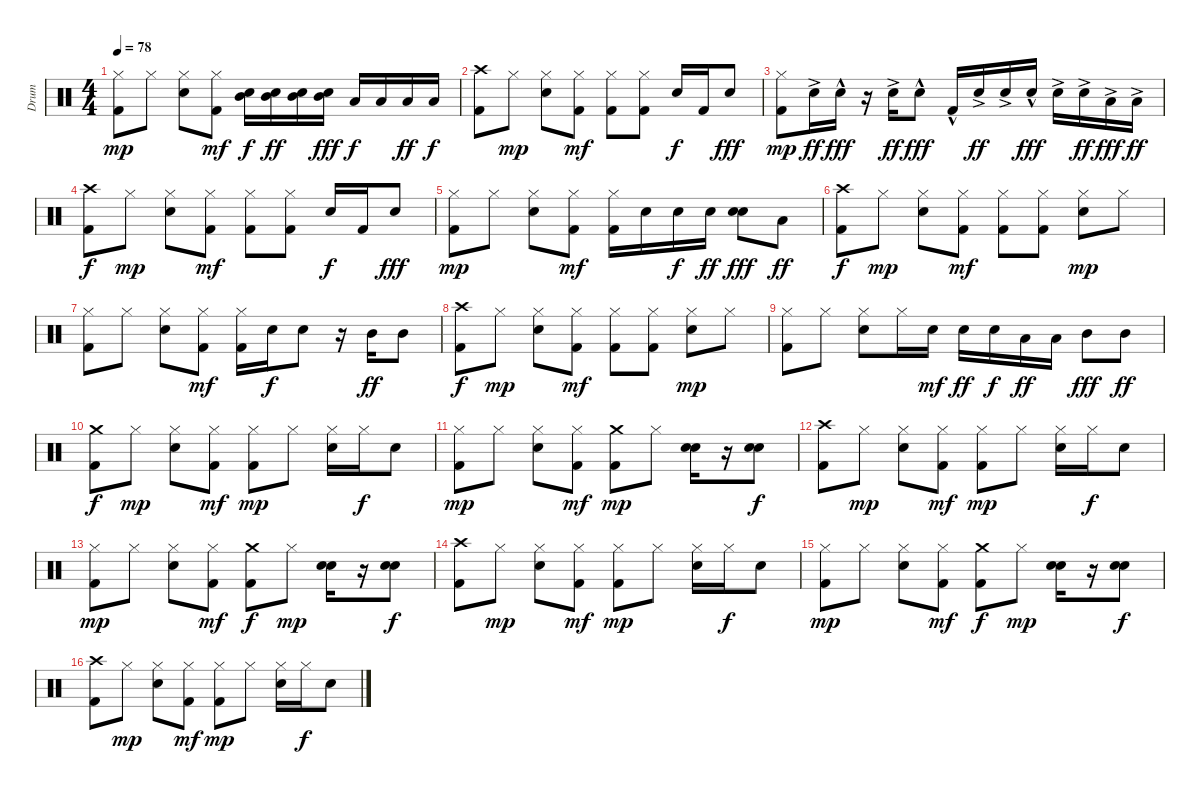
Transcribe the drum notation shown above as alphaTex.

\track ("Drum" "Drum") {instrument percussion}
\staff {score}
\articulation defaults
\ts (4 4)
\tempo 78
\clef neutral
\ks c
("Hi-Hat (closed)" "Kick (hit) 2").8{dy mp} "Hi-Hat (closed)".8 ("Hi-Hat (closed)" "Electric Snare (hit)").8 ("Hi-Hat (closed)" "Kick (hit) 2").8{dy mf} ("Mid Tom (hit)" "Snare (hit) 2").16{dy f} ("Mid Tom (hit)" "Snare (hit) 2").16{dy ff} ("Mid Tom (hit)" "Snare (hit) 2").16 ("Mid Tom (hit)" "Snare (hit) 2").16{dy fff} "Low Tom (hit)".16{dy f} "Low Tom (hit)".16 "Low Tom (hit)".16{dy ff} "Low Tom (hit)".16{dy f} |
("Crash high (hit)" "Kick (hit) 2").8 "Hi-Hat (closed)".8{dy mp} ("Hi-Hat (closed)" "Electric Snare (hit)").8 ("Hi-Hat (closed)" "Kick (hit) 2").8{dy mf} ("Hi-Hat (closed)" "Kick (hit) 2").8 ("Hi-Hat (closed)" "Kick (hit) 2").8 "Electric Snare (hit)".16{dy f} "Kick (hit) 2".16 "Electric Snare (hit)".8{dy fff} |
("Hi-Hat (closed)" "Kick (hit) 2").8{dy mp} "Electric Snare (hit)"{ac}.16{dy ff} "Electric Snare (hit)"{hac}.16{dy fff} r.16 "Snare (hit) 2"{ac}.16{dy ff} "Snare (hit) 2"{hac}.8{dy fff} "Kick (hit) 2"{hac}.16 "Electric Snare (hit)"{ac}.16{dy ff} "Electric Snare (hit)"{ac}.16 "Electric Snare (hit)"{hac}.16{dy fff} "Snare (hit) 2"{ac}.16 "Snare (hit) 2"{ac}.16{dy ff} "Low Tom (hit)"{ac}.16{dy fff} "Low Tom (hit)"{ac}.16{dy ff} |
("Crash high (hit)" "Kick (hit) 2").8{dy f} "Hi-Hat (closed)".8{dy mp} ("Hi-Hat (closed)" "Electric Snare (hit)").8 ("Hi-Hat (closed)" "Kick (hit) 2").8{dy mf} ("Hi-Hat (closed)" "Kick (hit) 2").8 ("Hi-Hat (closed)" "Kick (hit) 2").8 "Electric Snare (hit)".16{dy f} "Kick (hit) 2".16 "Electric Snare (hit)".8{dy fff} |
("Hi-Hat (closed)" "Kick (hit) 2").8{dy mp} "Hi-Hat (closed)".8 ("Hi-Hat (closed)" "Electric Snare (hit)").8 ("Hi-Hat (closed)" "Kick (hit) 2").8{dy mf} ("Hi-Hat (closed)" "Kick (hit) 2").16 "Electric Snare (hit)".16 "Electric Snare (hit)".16{dy f} "Electric Snare (hit)".16{dy ff} ("Snare (hit) 2" "Electric Snare (hit)").8{dy fff} "Low Tom (hit)".8{dy ff} |
("Crash high (hit)" "Kick (hit) 2").8{dy f} "Hi-Hat (closed)".8{dy mp} ("Hi-Hat (closed)" "Electric Snare (hit)").8 ("Hi-Hat (closed)" "Kick (hit) 2").8{dy mf} ("Hi-Hat (closed)" "Kick (hit) 2").8 ("Hi-Hat (closed)" "Kick (hit) 2").8 ("Hi-Hat (closed)" "Electric Snare (hit)").8{dy mp} "Hi-Hat (closed)".8 |
("Hi-Hat (closed)" "Kick (hit) 2").8 "Hi-Hat (closed)".8 ("Hi-Hat (closed)" "Electric Snare (hit)").8 ("Hi-Hat (closed)" "Kick (hit) 2").8{dy mf} ("Hi-Hat (closed)" "Kick (hit) 2").16 "Electric Snare (hit)".16{dy f} "Electric Snare (hit)".8 r.16 "Mid Tom (hit)".16{dy ff} "Mid Tom (hit)".8 |
("Crash high (hit)" "Kick (hit) 2").8{dy f} "Hi-Hat (closed)".8{dy mp} ("Hi-Hat (closed)" "Electric Snare (hit)").8 ("Hi-Hat (closed)" "Kick (hit) 2").8{dy mf} ("Hi-Hat (closed)" "Kick (hit) 2").8 ("Hi-Hat (closed)" "Kick (hit) 2").8 ("Hi-Hat (closed)" "Electric Snare (hit)").8{dy mp} "Hi-Hat (closed)".8 |
("Hi-Hat (closed)" "Kick (hit) 2").8 "Hi-Hat (closed)".8 ("Hi-Hat (closed)" "Electric Snare (hit)").8 "Hi-Hat (closed)".16 "Electric Snare (hit)".16{dy mf} "Electric Snare (hit)".16{dy ff} "Electric Snare (hit)".16{dy f} "Low Tom (hit)".16{dy ff} "Low Tom (hit)".16 "Mid Tom (hit)".8{dy fff} "Mid Tom (hit)".8{dy ff} |
("Crash medium (hit)" "Kick (hit) 2").8{dy f} "Hi-Hat (closed)".8{dy mp} ("Hi-Hat (closed)" "Electric Snare (hit)").8 ("Hi-Hat (closed)" "Kick (hit) 2").8{dy mf} ("Hi-Hat (closed)" "Kick (hit) 2").8{dy mp} "Hi-Hat (closed)".8 ("Hi-Hat (closed)" "Electric Snare (hit)").16 "Hi-Hat (closed)".16{dy f} "Electric Snare (hit)".8 |
("Hi-Hat (closed)" "Kick (hit) 2").8{dy mp} "Hi-Hat (closed)".8 ("Hi-Hat (closed)" "Electric Snare (hit)").8 ("Hi-Hat (closed)" "Kick (hit) 2").8{dy mf} ("Crash medium (hit)" "Kick (hit) 2").8{dy mp} "Hi-Hat (closed)".8 ("Snare (hit) 2" "Electric Snare (hit)").16 r.16 ("Snare (hit) 2" "Electric Snare (hit)").8{dy f} |
("Crash high (hit)" "Kick (hit) 2").8 "Hi-Hat (closed)".8{dy mp} ("Hi-Hat (closed)" "Electric Snare (hit)").8 ("Hi-Hat (closed)" "Kick (hit) 2").8{dy mf} ("Hi-Hat (closed)" "Kick (hit) 2").8{dy mp} "Hi-Hat (closed)".8 ("Hi-Hat (closed)" "Electric Snare (hit)").16 "Hi-Hat (closed)".16{dy f} "Electric Snare (hit)".8 |
("Hi-Hat (closed)" "Kick (hit) 2").8{dy mp} "Hi-Hat (closed)".8 ("Hi-Hat (closed)" "Electric Snare (hit)").8 ("Hi-Hat (closed)" "Kick (hit) 2").8{dy mf} ("Crash medium (hit)" "Kick (hit) 2").8{dy f} "Hi-Hat (closed)".8{dy mp} ("Snare (hit) 2" "Electric Snare (hit)").16 r.16 ("Snare (hit) 2" "Electric Snare (hit)").8{dy f} |
("Crash high (hit)" "Kick (hit) 2").8 "Hi-Hat (closed)".8{dy mp} ("Hi-Hat (closed)" "Electric Snare (hit)").8 ("Hi-Hat (closed)" "Kick (hit) 2").8{dy mf} ("Hi-Hat (closed)" "Kick (hit) 2").8{dy mp} "Hi-Hat (closed)".8 ("Hi-Hat (closed)" "Electric Snare (hit)").16 "Hi-Hat (closed)".16{dy f} "Electric Snare (hit)".8 |
("Hi-Hat (closed)" "Kick (hit) 2").8{dy mp} "Hi-Hat (closed)".8 ("Hi-Hat (closed)" "Electric Snare (hit)").8 ("Hi-Hat (closed)" "Kick (hit) 2").8{dy mf} ("Crash medium (hit)" "Kick (hit) 2").8{dy f} "Hi-Hat (closed)".8{dy mp} ("Snare (hit) 2" "Electric Snare (hit)").16 r.16 ("Snare (hit) 2" "Electric Snare (hit)").8{dy f} |
("Crash high (hit)" "Kick (hit) 2").8 "Hi-Hat (closed)".8{dy mp} ("Hi-Hat (closed)" "Electric Snare (hit)").8 ("Hi-Hat (closed)" "Kick (hit) 2").8{dy mf} ("Hi-Hat (closed)" "Kick (hit) 2").8{dy mp} "Hi-Hat (closed)".8 ("Hi-Hat (closed)" "Electric Snare (hit)").16 "Hi-Hat (closed)".16{dy f} "Electric Snare (hit)".8
